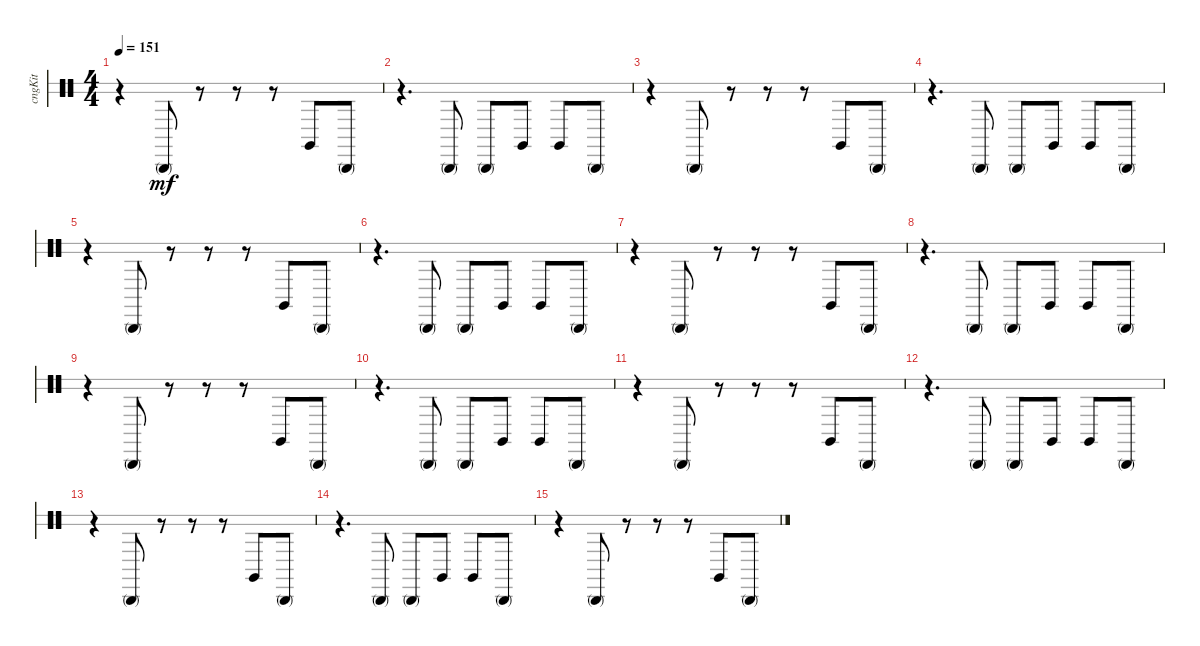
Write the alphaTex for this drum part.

\bracketExtendMode groupsimilarinstruments
\track ("Congas" "cngKit") {instrument percussion}
\staff {score 2}
\articulation defaults
\ts (4 4)
\tempo 151
\clef neutral
\ks aminor
r.4{dy mf} "Conga high (mute)".8 r.8 r.8 r.8 "Conga high (hit)".8 "Conga high (mute)".8 |
r.4{d} "Conga high (mute)".8 "Conga high (mute)".8 "Conga high (hit)".8 "Conga high (hit)".8 "Conga high (mute)".8 |
r.4 "Conga high (mute)".8 r.8 r.8 r.8 "Conga high (hit)".8 "Conga high (mute)".8 |
r.4{d} "Conga high (mute)".8 "Conga high (mute)".8 "Conga high (hit)".8 "Conga high (hit)".8 "Conga high (mute)".8 |
r.4 "Conga high (mute)".8 r.8 r.8 r.8 "Conga high (hit)".8 "Conga high (mute)".8 |
r.4{d} "Conga high (mute)".8 "Conga high (mute)".8 "Conga high (hit)".8 "Conga high (hit)".8 "Conga high (mute)".8 |
r.4 "Conga high (mute)".8 r.8 r.8 r.8 "Conga high (hit)".8 "Conga high (mute)".8 |
r.4{d} "Conga high (mute)".8 "Conga high (mute)".8 "Conga high (hit)".8 "Conga high (hit)".8 "Conga high (mute)".8 |
r.4 "Conga high (mute)".8 r.8 r.8 r.8 "Conga high (hit)".8 "Conga high (mute)".8 |
r.4{d} "Conga high (mute)".8 "Conga high (mute)".8 "Conga high (hit)".8 "Conga high (hit)".8 "Conga high (mute)".8 |
r.4 "Conga high (mute)".8 r.8 r.8 r.8 "Conga high (hit)".8 "Conga high (mute)".8 |
r.4{d} "Conga high (mute)".8 "Conga high (mute)".8 "Conga high (hit)".8 "Conga high (hit)".8 "Conga high (mute)".8 |
r.4 "Conga high (mute)".8 r.8 r.8 r.8 "Conga high (hit)".8 "Conga high (mute)".8 |
r.4{d} "Conga high (mute)".8 "Conga high (mute)".8 "Conga high (hit)".8 "Conga high (hit)".8 "Conga high (mute)".8 |
r.4 "Conga high (mute)".8 r.8 r.8 r.8 "Conga high (hit)".8 "Conga high (mute)".8
